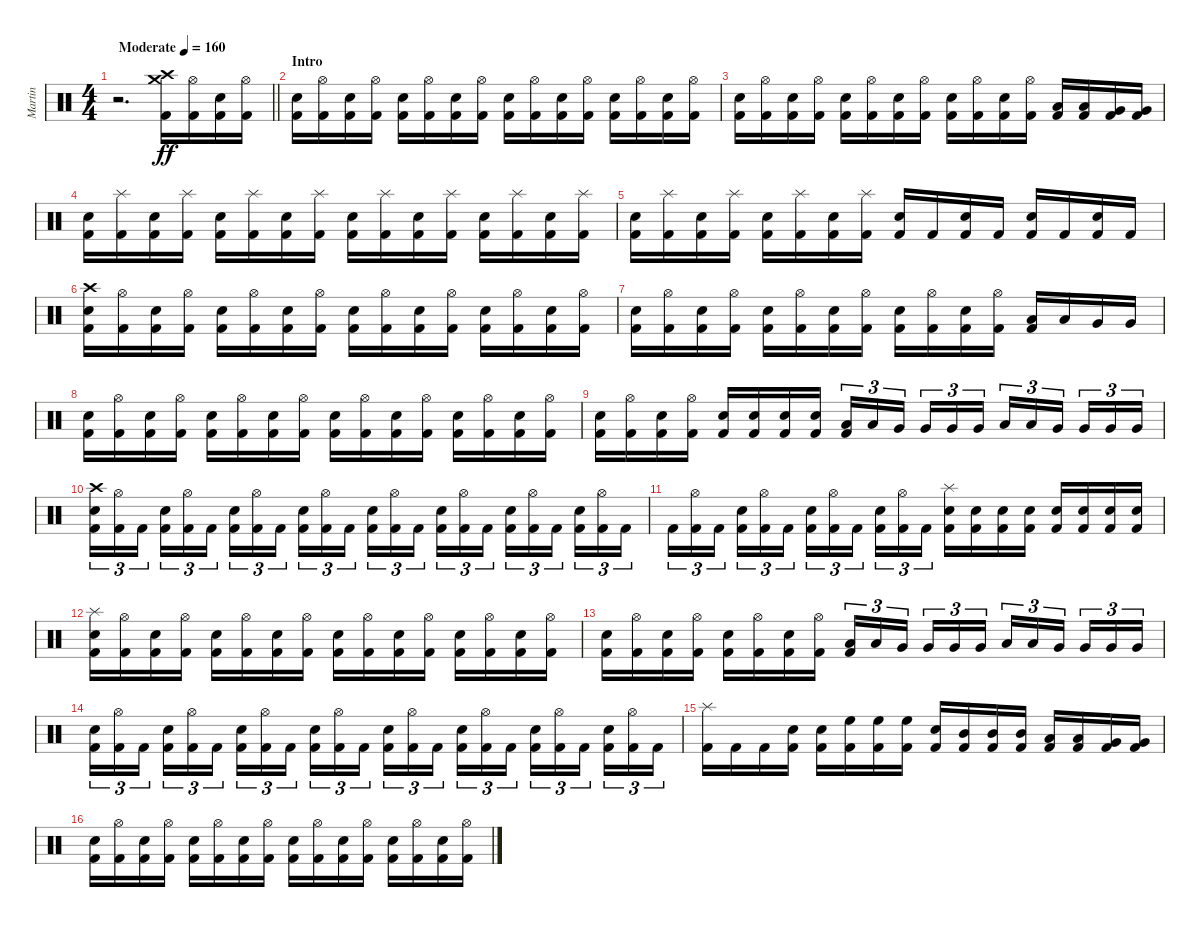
\track ("Martin" "Martin") {instrument percussion}
\staff {score}
\articulation defaults
\ts (4 4)
\tempo (160 "Moderate")
\clef neutral
\barLineRight lightlight
\ks c
r.2{d dy ff} ("Crash high (hit)" "Crash medium (hit)" "Kick (hit) 2").16 ("Hi-Hat (open)" "Kick (hit) 2").16 ("Electric Snare (hit)" "Kick (hit) 2").16 ("Hi-Hat (open)" "Kick (hit) 2").16 |
\section ("" "Intro")
("Electric Snare (hit)" "Kick (hit) 2").16 ("Hi-Hat (open)" "Kick (hit) 2").16 ("Electric Snare (hit)" "Kick (hit) 2").16 ("Hi-Hat (open)" "Kick (hit) 2").16 ("Electric Snare (hit)" "Kick (hit) 2").16 ("Hi-Hat (open)" "Kick (hit) 2").16 ("Electric Snare (hit)" "Kick (hit) 2").16 ("Hi-Hat (open)" "Kick (hit) 2").16 ("Electric Snare (hit)" "Kick (hit) 2").16 ("Hi-Hat (open)" "Kick (hit) 2").16 ("Electric Snare (hit)" "Kick (hit) 2").16 ("Hi-Hat (open)" "Kick (hit) 2").16 ("Electric Snare (hit)" "Kick (hit) 2").16 ("Hi-Hat (open)" "Kick (hit) 2").16 ("Electric Snare (hit)" "Kick (hit) 2").16 ("Hi-Hat (open)" "Kick (hit) 2").16 |
("Electric Snare (hit)" "Kick (hit) 2").16 ("Hi-Hat (open)" "Kick (hit) 2").16 ("Electric Snare (hit)" "Kick (hit) 2").16 ("Hi-Hat (open)" "Kick (hit) 2").16 ("Electric Snare (hit)" "Kick (hit) 2").16 ("Hi-Hat (open)" "Kick (hit) 2").16 ("Electric Snare (hit)" "Kick (hit) 2").16 ("Hi-Hat (open)" "Kick (hit) 2").16 ("Electric Snare (hit)" "Kick (hit) 2").16 ("Hi-Hat (open)" "Kick (hit) 2").16 ("Electric Snare (hit)" "Kick (hit) 2").16 ("Hi-Hat (open)" "Kick (hit) 2").16 ("Low Tom (hit)" "Kick (hit) 2").16 ("Low Tom (hit)" "Kick (hit) 2").16 ("Very Low Tom (hit)" "Kick (hit) 2").16 ("Very Low Tom (hit)" "Kick (hit) 2").16 |
("Electric Snare (hit)" "Kick (hit) 2").16 ("Splash (hit)" "Kick (hit) 2").16 ("Electric Snare (hit)" "Kick (hit) 2").16 ("Splash (hit)" "Kick (hit) 2").16 ("Electric Snare (hit)" "Kick (hit) 2").16 ("Splash (hit)" "Kick (hit) 2").16 ("Electric Snare (hit)" "Kick (hit) 2").16 ("Splash (hit)" "Kick (hit) 2").16 ("Electric Snare (hit)" "Kick (hit) 2").16 ("Splash (hit)" "Kick (hit) 2").16 ("Electric Snare (hit)" "Kick (hit) 2").16 ("Splash (hit)" "Kick (hit) 2").16 ("Electric Snare (hit)" "Kick (hit) 2").16 ("Splash (hit)" "Kick (hit) 2").16 ("Electric Snare (hit)" "Kick (hit) 2").16 ("Splash (hit)" "Kick (hit) 2").16 |
("Electric Snare (hit)" "Kick (hit) 2").16 ("Splash (hit)" "Kick (hit) 2").16 ("Electric Snare (hit)" "Kick (hit) 2").16 ("Splash (hit)" "Kick (hit) 2").16 ("Electric Snare (hit)" "Kick (hit) 2").16 ("Splash (hit)" "Kick (hit) 2").16 ("Electric Snare (hit)" "Kick (hit) 2").16 ("Splash (hit)" "Kick (hit) 2").16 ("Electric Snare (hit)" "Kick (hit) 2").16 "Kick (hit) 2".16 ("Electric Snare (hit)" "Kick (hit) 2").16 "Kick (hit) 2".16 ("Electric Snare (hit)" "Kick (hit) 2").16 "Kick (hit) 2".16 ("Electric Snare (hit)" "Kick (hit) 2").16 "Kick (hit) 2".16 |
("Crash high (hit)" "Electric Snare (hit)" "Kick (hit) 2").16 ("Hi-Hat (open)" "Kick (hit) 2").16 ("Electric Snare (hit)" "Kick (hit) 2").16 ("Hi-Hat (open)" "Kick (hit) 2").16 ("Electric Snare (hit)" "Kick (hit) 2").16 ("Hi-Hat (open)" "Kick (hit) 2").16 ("Electric Snare (hit)" "Kick (hit) 2").16 ("Hi-Hat (open)" "Kick (hit) 2").16 ("Electric Snare (hit)" "Kick (hit) 2").16 ("Hi-Hat (open)" "Kick (hit) 2").16 ("Electric Snare (hit)" "Kick (hit) 2").16 ("Hi-Hat (open)" "Kick (hit) 2").16 ("Electric Snare (hit)" "Kick (hit) 2").16 ("Hi-Hat (open)" "Kick (hit) 2").16 ("Electric Snare (hit)" "Kick (hit) 2").16 ("Hi-Hat (open)" "Kick (hit) 2").16 |
("Electric Snare (hit)" "Kick (hit) 2").16 ("Hi-Hat (open)" "Kick (hit) 2").16 ("Electric Snare (hit)" "Kick (hit) 2").16 ("Hi-Hat (open)" "Kick (hit) 2").16 ("Electric Snare (hit)" "Kick (hit) 2").16 ("Hi-Hat (open)" "Kick (hit) 2").16 ("Electric Snare (hit)" "Kick (hit) 2").16 ("Hi-Hat (open)" "Kick (hit) 2").16 ("Electric Snare (hit)" "Kick (hit) 2").16 ("Hi-Hat (open)" "Kick (hit) 2").16 ("Electric Snare (hit)" "Kick (hit) 2").16 ("Hi-Hat (open)" "Kick (hit) 2").16 ("Low Tom (hit)" "Kick (hit) 2").16 "Low Tom (hit)".16 "Very Low Tom (hit)".16 "Very Low Tom (hit)".16 |
("Electric Snare (hit)" "Kick (hit) 2").16 ("Hi-Hat (open)" "Kick (hit) 2").16 ("Electric Snare (hit)" "Kick (hit) 2").16 ("Hi-Hat (open)" "Kick (hit) 2").16 ("Electric Snare (hit)" "Kick (hit) 2").16 ("Hi-Hat (open)" "Kick (hit) 2").16 ("Electric Snare (hit)" "Kick (hit) 2").16 ("Hi-Hat (open)" "Kick (hit) 2").16 ("Electric Snare (hit)" "Kick (hit) 2").16 ("Hi-Hat (open)" "Kick (hit) 2").16 ("Electric Snare (hit)" "Kick (hit) 2").16 ("Hi-Hat (open)" "Kick (hit) 2").16 ("Electric Snare (hit)" "Kick (hit) 2").16 ("Hi-Hat (open)" "Kick (hit) 2").16 ("Electric Snare (hit)" "Kick (hit) 2").16 ("Hi-Hat (open)" "Kick (hit) 2").16 |
("Electric Snare (hit)" "Kick (hit) 2").16 ("Hi-Hat (open)" "Kick (hit) 2").16 ("Electric Snare (hit)" "Kick (hit) 2").16 ("Hi-Hat (open)" "Kick (hit) 2").16 ("Electric Snare (hit)" "Kick (hit) 2").16 ("Electric Snare (hit)" "Kick (hit) 2").16 ("Electric Snare (hit)" "Kick (hit) 2").16 ("Electric Snare (hit)" "Kick (hit) 2").16 ("Low Tom (hit)" "Kick (hit) 2").16{tu (3 2)} "Low Tom (hit)".16{tu (3 2)} "Very Low Tom (hit)".16{tu (3 2) beam splitsecondary} "Very Low Tom (hit)".16{tu (3 2)} "Very Low Tom (hit)".16{tu (3 2)} "Very Low Tom (hit)".16{tu (3 2)} "Low Tom (hit)".16{tu (3 2)} "Low Tom (hit)".16{tu (3 2)} "Very Low Tom (hit)".16{tu (3 2) beam splitsecondary} "Very Low Tom (hit)".16{tu (3 2)} "Very Low Tom (hit)".16{tu (3 2)} "Very Low Tom (hit)".16{tu (3 2)} |
("Crash high (hit)" "Electric Snare (hit)" "Kick (hit) 2").16{tu (3 2)} ("Hi-Hat (open)" "Kick (hit) 2").16{tu (3 2)} "Kick (hit) 2".16{tu (3 2) beam splitsecondary} ("Electric Snare (hit)" "Kick (hit) 2").16{tu (3 2)} ("Hi-Hat (open)" "Kick (hit) 2").16{tu (3 2)} "Kick (hit) 2".16{tu (3 2)} ("Electric Snare (hit)" "Kick (hit) 2").16{tu (3 2)} ("Hi-Hat (open)" "Kick (hit) 2").16{tu (3 2)} "Kick (hit) 2".16{tu (3 2) beam splitsecondary} ("Electric Snare (hit)" "Kick (hit) 2").16{tu (3 2)} ("Hi-Hat (open)" "Kick (hit) 2").16{tu (3 2)} "Kick (hit) 2".16{tu (3 2)} ("Electric Snare (hit)" "Kick (hit) 2").16{tu (3 2)} ("Hi-Hat (open)" "Kick (hit) 2").16{tu (3 2)} "Kick (hit) 2".16{tu (3 2) beam splitsecondary} ("Electric Snare (hit)" "Kick (hit) 2").16{tu (3 2)} ("Hi-Hat (open)" "Kick (hit) 2").16{tu (3 2)} "Kick (hit) 2".16{tu (3 2)} ("Electric Snare (hit)" "Kick (hit) 2").16{tu (3 2)} ("Hi-Hat (open)" "Kick (hit) 2").16{tu (3 2)} "Kick (hit) 2".16{tu (3 2) beam splitsecondary} ("Electric Snare (hit)" "Kick (hit) 2").16{tu (3 2)} ("Hi-Hat (open)" "Kick (hit) 2").16{tu (3 2)} "Kick (hit) 2".16{tu (3 2)} |
"Kick (hit) 2".16{tu (3 2)} ("Hi-Hat (open)" "Kick (hit) 2").16{tu (3 2)} "Kick (hit) 2".16{tu (3 2) beam splitsecondary} ("Electric Snare (hit)" "Kick (hit) 2").16{tu (3 2)} ("Hi-Hat (open)" "Kick (hit) 2").16{tu (3 2)} "Kick (hit) 2".16{tu (3 2)} ("Electric Snare (hit)" "Kick (hit) 2").16{tu (3 2)} ("Hi-Hat (open)" "Kick (hit) 2").16{tu (3 2)} "Kick (hit) 2".16{tu (3 2) beam splitsecondary} ("Electric Snare (hit)" "Kick (hit) 2").16{tu (3 2)} ("Hi-Hat (open)" "Kick (hit) 2").16{tu (3 2)} "Kick (hit) 2".16{tu (3 2)} ("Splash (hit)" "Electric Snare (hit)" "Kick (hit) 2").16 ("Electric Snare (hit)" "Kick (hit) 2").16 ("Electric Snare (hit)" "Kick (hit) 2").16 ("Electric Snare (hit)" "Kick (hit) 2").16 ("Electric Snare (hit)" "Kick (hit) 2").16 ("Electric Snare (hit)" "Kick (hit) 2").16 ("Electric Snare (hit)" "Kick (hit) 2").16 ("Electric Snare (hit)" "Kick (hit) 2").16 |
("Splash (hit)" "Electric Snare (hit)" "Kick (hit) 2").16 ("Hi-Hat (open)" "Kick (hit) 2").16 ("Electric Snare (hit)" "Kick (hit) 2").16 ("Hi-Hat (open)" "Kick (hit) 2").16 ("Electric Snare (hit)" "Kick (hit) 2").16 ("Hi-Hat (open)" "Kick (hit) 2").16 ("Electric Snare (hit)" "Kick (hit) 2").16 ("Hi-Hat (open)" "Kick (hit) 2").16 ("Electric Snare (hit)" "Kick (hit) 2").16 ("Hi-Hat (open)" "Kick (hit) 2").16 ("Electric Snare (hit)" "Kick (hit) 2").16 ("Hi-Hat (open)" "Kick (hit) 2").16 ("Electric Snare (hit)" "Kick (hit) 2").16 ("Hi-Hat (open)" "Kick (hit) 2").16 ("Electric Snare (hit)" "Kick (hit) 2").16 ("Hi-Hat (open)" "Kick (hit) 2").16 |
("Electric Snare (hit)" "Kick (hit) 2").16 ("Hi-Hat (open)" "Kick (hit) 2").16 ("Electric Snare (hit)" "Kick (hit) 2").16 ("Hi-Hat (open)" "Kick (hit) 2").16 ("Electric Snare (hit)" "Kick (hit) 2").16 ("Hi-Hat (open)" "Kick (hit) 2").16 ("Electric Snare (hit)" "Kick (hit) 2").16 ("Hi-Hat (open)" "Kick (hit) 2").16 ("Low Tom (hit)" "Kick (hit) 2").16{tu (3 2)} "Low Tom (hit)".16{tu (3 2)} "Very Low Tom (hit)".16{tu (3 2) beam splitsecondary} "Very Low Tom (hit)".16{tu (3 2)} "Very Low Tom (hit)".16{tu (3 2)} "Very Low Tom (hit)".16{tu (3 2)} "Low Tom (hit)".16{tu (3 2)} "Low Tom (hit)".16{tu (3 2)} "Very Low Tom (hit)".16{tu (3 2) beam splitsecondary} "Very Low Tom (hit)".16{tu (3 2)} "Very Low Tom (hit)".16{tu (3 2)} "Very Low Tom (hit)".16{tu (3 2)} |
("Electric Snare (hit)" "Kick (hit) 2").16{tu (3 2)} ("Hi-Hat (open)" "Kick (hit) 2").16{tu (3 2)} "Kick (hit) 2".16{tu (3 2) beam splitsecondary} ("Electric Snare (hit)" "Kick (hit) 2").16{tu (3 2)} ("Hi-Hat (open)" "Kick (hit) 2").16{tu (3 2)} "Kick (hit) 2".16{tu (3 2)} ("Electric Snare (hit)" "Kick (hit) 2").16{tu (3 2)} ("Hi-Hat (open)" "Kick (hit) 2").16{tu (3 2)} "Kick (hit) 2".16{tu (3 2) beam splitsecondary} ("Electric Snare (hit)" "Kick (hit) 2").16{tu (3 2)} ("Hi-Hat (open)" "Kick (hit) 2").16{tu (3 2)} "Kick (hit) 2".16{tu (3 2)} ("Electric Snare (hit)" "Kick (hit) 2").16{tu (3 2)} ("Hi-Hat (open)" "Kick (hit) 2").16{tu (3 2)} "Kick (hit) 2".16{tu (3 2) beam splitsecondary} ("Electric Snare (hit)" "Kick (hit) 2").16{tu (3 2)} ("Hi-Hat (open)" "Kick (hit) 2").16{tu (3 2)} "Kick (hit) 2".16{tu (3 2)} ("Electric Snare (hit)" "Kick (hit) 2").16{tu (3 2)} ("Hi-Hat (open)" "Kick (hit) 2").16{tu (3 2)} "Kick (hit) 2".16{tu (3 2) beam splitsecondary} ("Electric Snare (hit)" "Kick (hit) 2").16{tu (3 2)} ("Hi-Hat (open)" "Kick (hit) 2").16{tu (3 2)} "Kick (hit) 2".16{tu (3 2)} |
("Splash (hit)" "Kick (hit) 2").16 "Kick (hit) 2".16 "Kick (hit) 2".16 ("Electric Snare (hit)" "Kick (hit) 2").16 ("Electric Snare (hit)" "Kick (hit) 2").16 ("High Floor Tom (hit)" "Kick (hit) 2").16 ("High Floor Tom (hit)" "Kick (hit) 2").16 ("High Floor Tom (hit)" "Kick (hit) 2").16 ("Electric Snare (hit)" "Kick (hit) 2").16 ("Mid Tom (hit)" "Kick (hit) 2").16 ("Mid Tom (hit)" "Kick (hit) 2").16 ("Mid Tom (hit)" "Kick (hit) 2").16 ("Low Tom (hit)" "Kick (hit) 2").16 ("Low Tom (hit)" "Kick (hit) 2").16 ("Very Low Tom (hit)" "Kick (hit) 2").16 ("Very Low Tom (hit)" "Kick (hit) 2").16 |
("Electric Snare (hit)" "Kick (hit) 2").16 ("Hi-Hat (open)" "Kick (hit) 2").16 ("Electric Snare (hit)" "Kick (hit) 2").16 ("Hi-Hat (open)" "Kick (hit) 2").16 ("Electric Snare (hit)" "Kick (hit) 2").16 ("Hi-Hat (open)" "Kick (hit) 2").16 ("Electric Snare (hit)" "Kick (hit) 2").16 ("Hi-Hat (open)" "Kick (hit) 2").16 ("Electric Snare (hit)" "Kick (hit) 2").16 ("Hi-Hat (open)" "Kick (hit) 2").16 ("Electric Snare (hit)" "Kick (hit) 2").16 ("Hi-Hat (open)" "Kick (hit) 2").16 ("Electric Snare (hit)" "Kick (hit) 2").16 ("Hi-Hat (open)" "Kick (hit) 2").16 ("Electric Snare (hit)" "Kick (hit) 2").16 ("Hi-Hat (open)" "Kick (hit) 2").16
